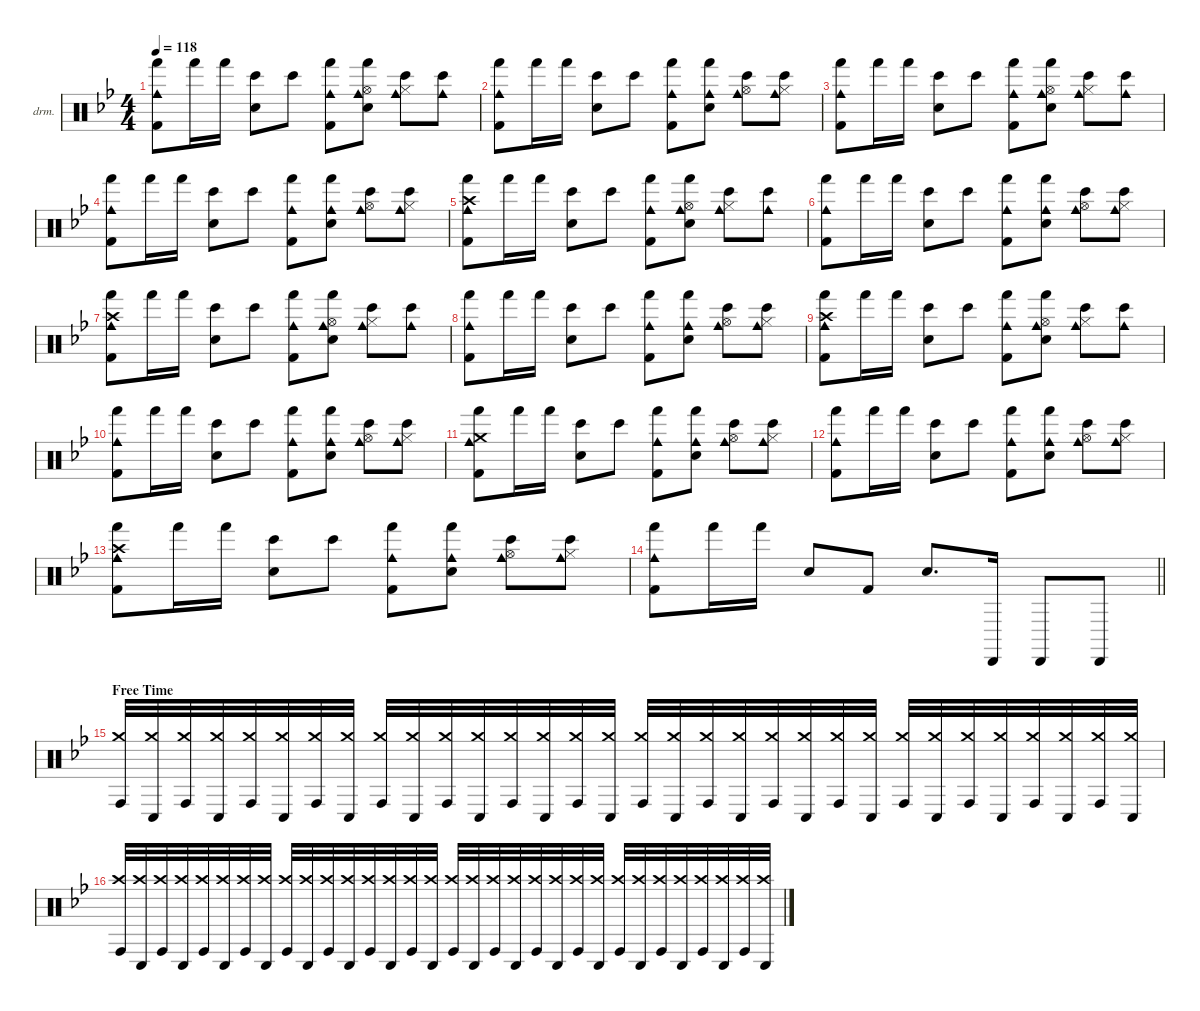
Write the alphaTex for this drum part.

\defaultSystemsLayout 4
\hideDynamics
\bracketExtendMode nobrackets
\firstSystemTrackNameOrientation horizontal
\otherSystemsTrackNameOrientation horizontal
\track ("Percussion" "drm.") {instrument percussion}
\staff {score}
\articulation defaults
\ts (4 4)
\tempo 118
\clef neutral
\ks gminor
("Cowbell medium (hit)"{acc forcenatural} "Hand (hit)"{acc forcenatural} "Kick (hit) 2"{acc forcenatural}).8{dy f} "Hand (hit)"{acc forcenatural}.16 "Hand (hit)"{acc forcenatural}.16 ("Bongo High (hit)"{acc forcenatural} "Snare (hit) 2"{acc forcenatural}).8 "Bongo High (hit)"{acc forcenatural}.8 ("Cowbell medium (hit)"{acc forcenatural} "Hand (hit)"{acc forcenatural} "Kick (hit) 2"{acc forcenatural}).8 ("Cowbell medium (hit)"{acc forcenatural} "Hand (hit)"{acc forcenatural} "Snare (hit) 2"{acc forcenatural} "Hi-Hat (open)"{acc forcenatural}).8 ("Cowbell medium (hit)"{acc forcenatural} "Bongo High (hit)"{acc forcenatural} "Hi-Hat (closed)"{acc forcenatural}).8 ("Cowbell medium (hit)"{acc forcenatural} "Bongo High (hit)"{acc forcenatural}).8 |
("Cowbell medium (hit)"{acc forcenatural} "Hand (hit)"{acc forcenatural} "Kick (hit) 2"{acc forcenatural}).8 "Hand (hit)"{acc forcenatural}.16 "Hand (hit)"{acc forcenatural}.16 ("Bongo High (hit)"{acc forcenatural} "Snare (hit) 2"{acc forcenatural}).8 "Bongo High (hit)"{acc forcenatural}.8 ("Cowbell medium (hit)"{acc forcenatural} "Hand (hit)"{acc forcenatural} "Kick (hit) 2"{acc forcenatural}).8 ("Cowbell medium (hit)"{acc forcenatural} "Hand (hit)"{acc forcenatural} "Snare (hit) 2"{acc forcenatural}).8 ("Cowbell medium (hit)"{acc forcenatural} "Bongo High (hit)"{acc forcenatural} "Hi-Hat (open)"{acc forcenatural}).8 ("Cowbell medium (hit)"{acc forcenatural} "Bongo High (hit)"{acc forcenatural} "Hi-Hat (closed)"{acc forcenatural}).8 |
("Cowbell medium (hit)"{acc forcenatural} "Hand (hit)"{acc forcenatural} "Kick (hit) 2"{acc forcenatural}).8 "Hand (hit)"{acc forcenatural}.16 "Hand (hit)"{acc forcenatural}.16 ("Bongo High (hit)"{acc forcenatural} "Snare (hit) 2"{acc forcenatural}).8 "Bongo High (hit)"{acc forcenatural}.8 ("Cowbell medium (hit)"{acc forcenatural} "Hand (hit)"{acc forcenatural} "Kick (hit) 2"{acc forcenatural}).8 ("Cowbell medium (hit)"{acc forcenatural} "Hand (hit)"{acc forcenatural} "Snare (hit) 2"{acc forcenatural} "Hi-Hat (open)"{acc forcenatural}).8 ("Cowbell medium (hit)"{acc forcenatural} "Bongo High (hit)"{acc forcenatural} "Hi-Hat (closed)"{acc forcenatural}).8 ("Cowbell medium (hit)"{acc forcenatural} "Bongo High (hit)"{acc forcenatural}).8 |
("Cowbell medium (hit)"{acc forcenatural} "Hand (hit)"{acc forcenatural} "Kick (hit) 2"{acc forcenatural}).8 "Hand (hit)"{acc forcenatural}.16 "Hand (hit)"{acc forcenatural}.16 ("Bongo High (hit)"{acc forcenatural} "Snare (hit) 2"{acc forcenatural}).8 "Bongo High (hit)"{acc forcenatural}.8 ("Cowbell medium (hit)"{acc forcenatural} "Hand (hit)"{acc forcenatural} "Kick (hit) 2"{acc forcenatural}).8 ("Cowbell medium (hit)"{acc forcenatural} "Hand (hit)"{acc forcenatural} "Snare (hit) 2"{acc forcenatural}).8 ("Cowbell medium (hit)"{acc forcenatural} "Bongo High (hit)"{acc forcenatural} "Hi-Hat (open)"{acc forcenatural}).8 ("Cowbell medium (hit)"{acc forcenatural} "Bongo High (hit)"{acc forcenatural} "Hi-Hat (closed)"{acc forcenatural}).8 |
("Cowbell medium (hit)"{acc forcenatural} "Hand (hit)"{acc forcenatural} "Crash high (hit)"{acc forcenatural} "Kick (hit) 2"{acc forcenatural}).8 "Hand (hit)"{acc forcenatural}.16 "Hand (hit)"{acc forcenatural}.16 ("Bongo High (hit)"{acc forcenatural} "Snare (hit) 2"{acc forcenatural}).8 "Bongo High (hit)"{acc forcenatural}.8 ("Cowbell medium (hit)"{acc forcenatural} "Hand (hit)"{acc forcenatural} "Kick (hit) 2"{acc forcenatural}).8 ("Cowbell medium (hit)"{acc forcenatural} "Hand (hit)"{acc forcenatural} "Snare (hit) 2"{acc forcenatural} "Hi-Hat (open)"{acc forcenatural}).8 ("Cowbell medium (hit)"{acc forcenatural} "Bongo High (hit)"{acc forcenatural} "Hi-Hat (closed)"{acc forcenatural}).8 ("Cowbell medium (hit)"{acc forcenatural} "Bongo High (hit)"{acc forcenatural}).8 |
("Cowbell medium (hit)"{acc forcenatural} "Hand (hit)"{acc forcenatural} "Kick (hit) 2"{acc forcenatural}).8 "Hand (hit)"{acc forcenatural}.16 "Hand (hit)"{acc forcenatural}.16 ("Bongo High (hit)"{acc forcenatural} "Snare (hit) 2"{acc forcenatural}).8 "Bongo High (hit)"{acc forcenatural}.8 ("Cowbell medium (hit)"{acc forcenatural} "Hand (hit)"{acc forcenatural} "Kick (hit) 2"{acc forcenatural}).8 ("Cowbell medium (hit)"{acc forcenatural} "Hand (hit)"{acc forcenatural} "Snare (hit) 2"{acc forcenatural}).8 ("Cowbell medium (hit)"{acc forcenatural} "Bongo High (hit)"{acc forcenatural} "Hi-Hat (open)"{acc forcenatural}).8 ("Cowbell medium (hit)"{acc forcenatural} "Bongo High (hit)"{acc forcenatural} "Hi-Hat (closed)"{acc forcenatural}).8 |
("Cowbell medium (hit)"{acc forcenatural} "Hand (hit)"{acc forcenatural} "Crash high (hit)"{acc forcenatural} "Kick (hit) 2"{acc forcenatural}).8 "Hand (hit)"{acc forcenatural}.16 "Hand (hit)"{acc forcenatural}.16 ("Bongo High (hit)"{acc forcenatural} "Snare (hit) 2"{acc forcenatural}).8 "Bongo High (hit)"{acc forcenatural}.8 ("Cowbell medium (hit)"{acc forcenatural} "Hand (hit)"{acc forcenatural} "Kick (hit) 2"{acc forcenatural}).8 ("Cowbell medium (hit)"{acc forcenatural} "Hand (hit)"{acc forcenatural} "Snare (hit) 2"{acc forcenatural} "Hi-Hat (open)"{acc forcenatural}).8 ("Cowbell medium (hit)"{acc forcenatural} "Bongo High (hit)"{acc forcenatural} "Hi-Hat (closed)"{acc forcenatural}).8 ("Cowbell medium (hit)"{acc forcenatural} "Bongo High (hit)"{acc forcenatural}).8 |
("Cowbell medium (hit)"{acc forcenatural} "Hand (hit)"{acc forcenatural} "Kick (hit) 2"{acc forcenatural}).8 "Hand (hit)"{acc forcenatural}.16 "Hand (hit)"{acc forcenatural}.16 ("Bongo High (hit)"{acc forcenatural} "Snare (hit) 2"{acc forcenatural}).8 "Bongo High (hit)"{acc forcenatural}.8 ("Cowbell medium (hit)"{acc forcenatural} "Hand (hit)"{acc forcenatural} "Kick (hit) 2"{acc forcenatural}).8 ("Cowbell medium (hit)"{acc forcenatural} "Hand (hit)"{acc forcenatural} "Snare (hit) 2"{acc forcenatural}).8 ("Cowbell medium (hit)"{acc forcenatural} "Bongo High (hit)"{acc forcenatural} "Hi-Hat (open)"{acc forcenatural}).8 ("Cowbell medium (hit)"{acc forcenatural} "Bongo High (hit)"{acc forcenatural} "Hi-Hat (closed)"{acc forcenatural}).8 |
("Cowbell medium (hit)"{acc forcenatural} "Hand (hit)"{acc forcenatural} "Crash high (hit)"{acc forcenatural} "Kick (hit) 2"{acc forcenatural}).8 "Hand (hit)"{acc forcenatural}.16 "Hand (hit)"{acc forcenatural}.16 ("Bongo High (hit)"{acc forcenatural} "Snare (hit) 2"{acc forcenatural}).8 "Bongo High (hit)"{acc forcenatural}.8 ("Cowbell medium (hit)"{acc forcenatural} "Hand (hit)"{acc forcenatural} "Kick (hit) 2"{acc forcenatural}).8 ("Cowbell medium (hit)"{acc forcenatural} "Hand (hit)"{acc forcenatural} "Snare (hit) 2"{acc forcenatural} "Hi-Hat (open)"{acc forcenatural}).8 ("Cowbell medium (hit)"{acc forcenatural} "Bongo High (hit)"{acc forcenatural} "Hi-Hat (closed)"{acc forcenatural}).8 ("Cowbell medium (hit)"{acc forcenatural} "Bongo High (hit)"{acc forcenatural}).8 |
("Cowbell medium (hit)"{acc forcenatural} "Hand (hit)"{acc forcenatural} "Kick (hit) 2"{acc forcenatural}).8 "Hand (hit)"{acc forcenatural}.16 "Hand (hit)"{acc forcenatural}.16 ("Bongo High (hit)"{acc forcenatural} "Snare (hit) 2"{acc forcenatural}).8 "Bongo High (hit)"{acc forcenatural}.8 ("Cowbell medium (hit)"{acc forcenatural} "Hand (hit)"{acc forcenatural} "Kick (hit) 2"{acc forcenatural}).8 ("Cowbell medium (hit)"{acc forcenatural} "Hand (hit)"{acc forcenatural} "Snare (hit) 2"{acc forcenatural}).8 ("Cowbell medium (hit)"{acc forcenatural} "Bongo High (hit)"{acc forcenatural} "Hi-Hat (open)"{acc forcenatural}).8 ("Cowbell medium (hit)"{acc forcenatural} "Bongo High (hit)"{acc forcenatural} "Hi-Hat (closed)"{acc forcenatural}).8 |
("Cowbell medium (hit)"{acc forcenatural} "Hand (hit)"{acc forcenatural} "Crash medium (hit)"{acc forcenatural} "Kick (hit) 2"{acc forcenatural}).8 "Hand (hit)"{acc forcenatural}.16 "Hand (hit)"{acc forcenatural}.16 ("Bongo High (hit)"{acc forcenatural} "Snare (hit) 2"{acc forcenatural}).8 "Bongo High (hit)"{acc forcenatural}.8 ("Cowbell medium (hit)"{acc forcenatural} "Hand (hit)"{acc forcenatural} "Kick (hit) 2"{acc forcenatural}).8 ("Cowbell medium (hit)"{acc forcenatural} "Hand (hit)"{acc forcenatural} "Snare (hit) 2"{acc forcenatural}).8 ("Cowbell medium (hit)"{acc forcenatural} "Bongo High (hit)"{acc forcenatural} "Hi-Hat (open)"{acc forcenatural}).8 ("Cowbell medium (hit)"{acc forcenatural} "Bongo High (hit)"{acc forcenatural} "Hi-Hat (closed)"{acc forcenatural}).8 |
("Cowbell medium (hit)"{acc forcenatural} "Hand (hit)"{acc forcenatural} "Kick (hit) 2"{acc forcenatural}).8 "Hand (hit)"{acc forcenatural}.16 "Hand (hit)"{acc forcenatural}.16 ("Bongo High (hit)"{acc forcenatural} "Snare (hit) 2"{acc forcenatural}).8 "Bongo High (hit)"{acc forcenatural}.8 ("Cowbell medium (hit)"{acc forcenatural} "Hand (hit)"{acc forcenatural} "Kick (hit) 2"{acc forcenatural}).8 ("Cowbell medium (hit)"{acc forcenatural} "Hand (hit)"{acc forcenatural} "Snare (hit) 2"{acc forcenatural}).8 ("Cowbell medium (hit)"{acc forcenatural} "Bongo High (hit)"{acc forcenatural} "Hi-Hat (open)"{acc forcenatural}).8 ("Cowbell medium (hit)"{acc forcenatural} "Bongo High (hit)"{acc forcenatural} "Hi-Hat (closed)"{acc forcenatural}).8 |
("Cowbell medium (hit)"{acc forcenatural} "Hand (hit)"{acc forcenatural} "Crash high (hit)"{acc forcenatural} "Kick (hit) 2"{acc forcenatural}).8 "Hand (hit)"{acc forcenatural}.16 "Hand (hit)"{acc forcenatural}.16 ("Bongo High (hit)"{acc forcenatural} "Snare (hit) 2"{acc forcenatural}).8 "Bongo High (hit)"{acc forcenatural}.8 ("Cowbell medium (hit)"{acc forcenatural} "Hand (hit)"{acc forcenatural} "Kick (hit) 2"{acc forcenatural}).8 ("Cowbell medium (hit)"{acc forcenatural} "Hand (hit)"{acc forcenatural} "Snare (hit) 2"{acc forcenatural}).8 ("Cowbell medium (hit)"{acc forcenatural} "Bongo High (hit)"{acc forcenatural} "Hi-Hat (open)"{acc forcenatural}).8 ("Cowbell medium (hit)"{acc forcenatural} "Bongo High (hit)"{acc forcenatural} "Hi-Hat (closed)"{acc forcenatural}).8 |
\barLineRight lightlight
("Cowbell medium (hit)"{acc forcenatural} "Hand (hit)"{acc forcenatural} "Kick (hit) 2"{acc forcenatural}).8 "Hand (hit)"{acc forcenatural}.16 "Hand (hit)"{acc forcenatural}.16 "Snare (hit) 2"{acc forcenatural}.8 "Kick (hit) 2"{acc forcenatural}.8 "Snare (hit) 2"{acc forcenatural}.8{d} "Cabasa (hit)"{acc forcenatural}.16 "Cabasa (hit)"{acc forcenatural}.8 "Cabasa (hit)"{acc forcenatural}.8 |
\section ("" "Free Time")
("Conga high (hit)"{acc forcenatural} "Crash medium (hit)"{acc forcenatural}).32 ("Conga low (hit)"{acc forcenatural} "Crash medium (hit)"{acc forcenatural}).32 ("Conga high (hit)"{acc forcenatural} "Crash medium (hit)"{acc forcenatural}).32 ("Conga low (hit)"{acc forcenatural} "Crash medium (hit)"{acc forcenatural}).32 ("Conga high (hit)"{acc forcenatural} "Crash medium (hit)"{acc forcenatural}).32 ("Conga low (hit)"{acc forcenatural} "Crash medium (hit)"{acc forcenatural}).32 ("Conga high (hit)"{acc forcenatural} "Crash medium (hit)"{acc forcenatural}).32 ("Conga low (hit)"{acc forcenatural} "Crash medium (hit)"{acc forcenatural}).32 ("Conga high (hit)"{acc forcenatural} "Crash medium (hit)"{acc forcenatural}).32 ("Conga low (hit)"{acc forcenatural} "Crash medium (hit)"{acc forcenatural}).32 ("Conga high (hit)"{acc forcenatural} "Crash medium (hit)"{acc forcenatural}).32 ("Conga low (hit)"{acc forcenatural} "Crash medium (hit)"{acc forcenatural}).32 ("Conga high (hit)"{acc forcenatural} "Crash medium (hit)"{acc forcenatural}).32 ("Conga low (hit)"{acc forcenatural} "Crash medium (hit)"{acc forcenatural}).32 ("Conga high (hit)"{acc forcenatural} "Crash medium (hit)"{acc forcenatural}).32 ("Conga low (hit)"{acc forcenatural} "Crash medium (hit)"{acc forcenatural}).32 ("Conga high (hit)"{acc forcenatural} "Crash medium (hit)"{acc forcenatural}).32 ("Conga low (hit)"{acc forcenatural} "Crash medium (hit)"{acc forcenatural}).32 ("Conga high (hit)"{acc forcenatural} "Crash medium (hit)"{acc forcenatural}).32 ("Conga low (hit)"{acc forcenatural} "Crash medium (hit)"{acc forcenatural}).32 ("Conga high (hit)"{acc forcenatural} "Crash medium (hit)"{acc forcenatural}).32 ("Conga low (hit)"{acc forcenatural} "Crash medium (hit)"{acc forcenatural}).32 ("Conga high (hit)"{acc forcenatural} "Crash medium (hit)"{acc forcenatural}).32 ("Conga low (hit)"{acc forcenatural} "Crash medium (hit)"{acc forcenatural}).32 ("Conga high (hit)"{acc forcenatural} "Crash medium (hit)"{acc forcenatural}).32 ("Conga low (hit)"{acc forcenatural} "Crash medium (hit)"{acc forcenatural}).32 ("Conga high (hit)"{acc forcenatural} "Crash medium (hit)"{acc forcenatural}).32 ("Conga low (hit)"{acc forcenatural} "Crash medium (hit)"{acc forcenatural}).32 ("Conga high (hit)"{acc forcenatural} "Crash medium (hit)"{acc forcenatural}).32 ("Conga low (hit)"{acc forcenatural} "Crash medium (hit)"{acc forcenatural}).32 ("Conga high (hit)"{acc forcenatural} "Crash medium (hit)"{acc forcenatural}).32 ("Conga low (hit)"{acc forcenatural} "Crash medium (hit)"{acc forcenatural}).32 |
("Conga high (hit)"{acc forcenatural} "Crash high (hit)"{acc forcenatural}).32 ("Conga low (hit)"{acc forcenatural} "Crash high (hit)"{acc forcenatural}).32 ("Conga high (hit)"{acc forcenatural} "Crash high (hit)"{acc forcenatural}).32 ("Conga low (hit)"{acc forcenatural} "Crash high (hit)"{acc forcenatural}).32 ("Conga high (hit)"{acc forcenatural} "Crash high (hit)"{acc forcenatural}).32 ("Conga low (hit)"{acc forcenatural} "Crash high (hit)"{acc forcenatural}).32 ("Conga high (hit)"{acc forcenatural} "Crash high (hit)"{acc forcenatural}).32 ("Conga low (hit)"{acc forcenatural} "Crash high (hit)"{acc forcenatural}).32 ("Conga high (hit)"{acc forcenatural} "Crash high (hit)"{acc forcenatural}).32 ("Conga low (hit)"{acc forcenatural} "Crash high (hit)"{acc forcenatural}).32 ("Conga high (hit)"{acc forcenatural} "Crash high (hit)"{acc forcenatural}).32 ("Conga low (hit)"{acc forcenatural} "Crash high (hit)"{acc forcenatural}).32 ("Conga high (hit)"{acc forcenatural} "Crash high (hit)"{acc forcenatural}).32 ("Conga low (hit)"{acc forcenatural} "Crash high (hit)"{acc forcenatural}).32 ("Conga high (hit)"{acc forcenatural} "Crash high (hit)"{acc forcenatural}).32 ("Conga low (hit)"{acc forcenatural} "Crash high (hit)"{acc forcenatural}).32 ("Conga high (hit)"{acc forcenatural} "Crash high (hit)"{acc forcenatural}).32 ("Conga low (hit)"{acc forcenatural} "Crash high (hit)"{acc forcenatural}).32 ("Conga high (hit)"{acc forcenatural} "Crash high (hit)"{acc forcenatural}).32 ("Conga low (hit)"{acc forcenatural} "Crash high (hit)"{acc forcenatural}).32 ("Conga high (hit)"{acc forcenatural} "Crash high (hit)"{acc forcenatural}).32 ("Conga low (hit)"{acc forcenatural} "Crash high (hit)"{acc forcenatural}).32 ("Conga high (hit)"{acc forcenatural} "Crash high (hit)"{acc forcenatural}).32 ("Conga low (hit)"{acc forcenatural} "Crash high (hit)"{acc forcenatural}).32 ("Conga high (hit)"{acc forcenatural} "Crash high (hit)"{acc forcenatural}).32 ("Conga low (hit)"{acc forcenatural} "Crash high (hit)"{acc forcenatural}).32 ("Conga high (hit)"{acc forcenatural} "Crash high (hit)"{acc forcenatural}).32 ("Conga low (hit)"{acc forcenatural} "Crash high (hit)"{acc forcenatural}).32 ("Conga high (hit)"{acc forcenatural} "Crash high (hit)"{acc forcenatural}).32 ("Conga low (hit)"{acc forcenatural} "Crash high (hit)"{acc forcenatural}).32 ("Conga high (hit)"{acc forcenatural} "Crash high (hit)"{acc forcenatural}).32 ("Conga low (hit)"{acc forcenatural} "Crash high (hit)"{acc forcenatural}).32
